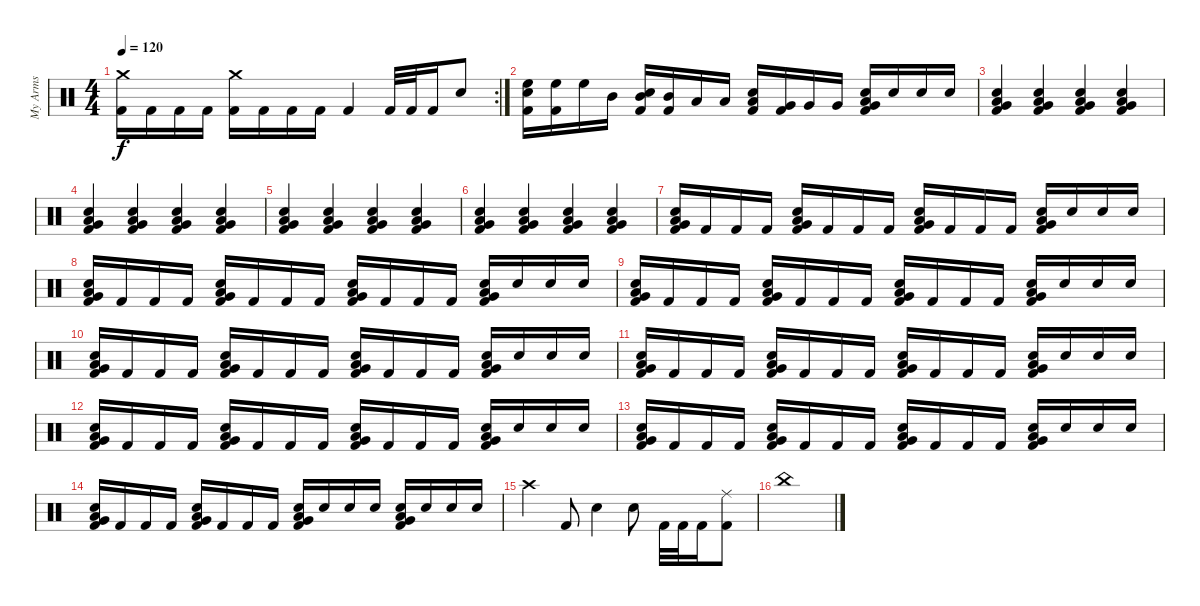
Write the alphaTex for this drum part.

\track ("My Arms" "My Arms") {instrument percussion}
\staff {score}
\articulation defaults
\rc 2
\ts (4 4)
\tempo 120
\clef neutral
\ks c
("Crash medium (hit)" "Kick (hit) 2").16{dy f} "Kick (hit) 2".16 "Kick (hit) 2".16 "Kick (hit) 2".16 ("Crash medium (hit)" "Kick (hit) 2").16 "Kick (hit) 2".16 "Kick (hit) 2".16 "Kick (hit) 2".16 "Kick (hit) 2".4 "Kick (hit) 2".32 "Kick (hit) 2".32 "Kick (hit) 2".16 "Snare (hit) 2".8 |
("High Floor Tom (hit)" "Kick (hit) 2" "Snare (hit) 2").16 ("High Floor Tom (hit)" "Kick (hit) 2").16 "High Floor Tom (hit)".16 "Mid Tom (hit)".16 ("Mid Tom (hit)" "Kick (hit) 2" "Snare (hit) 2").16 ("Mid Tom (hit)" "Kick (hit) 2").16 "Low Tom (hit)".16 "Low Tom (hit)".16 ("Low Tom (hit)" "Kick (hit) 2" "Snare (hit) 2").16 ("Very Low Tom (hit)" "Kick (hit) 2").16 "Very Low Tom (hit)".16 "Very Low Tom (hit)".16 ("Very Low Tom (hit)" "Low Tom (hit)" "Kick (hit) 2" "Snare (hit) 2").16 "Snare (hit) 2".16 "Snare (hit) 2".16 "Snare (hit) 2".16 |
("Very Low Tom (hit)" "Low Tom (hit)" "Kick (hit) 2" "Snare (hit) 2").4 ("Very Low Tom (hit)" "Low Tom (hit)" "Kick (hit) 2" "Snare (hit) 2").4 ("Very Low Tom (hit)" "Low Tom (hit)" "Kick (hit) 2" "Snare (hit) 2").4 ("Very Low Tom (hit)" "Low Tom (hit)" "Kick (hit) 2" "Snare (hit) 2").4 |
("Very Low Tom (hit)" "Low Tom (hit)" "Kick (hit) 2" "Snare (hit) 2").4 ("Very Low Tom (hit)" "Low Tom (hit)" "Kick (hit) 2" "Snare (hit) 2").4 ("Very Low Tom (hit)" "Low Tom (hit)" "Kick (hit) 2" "Snare (hit) 2").4 ("Very Low Tom (hit)" "Low Tom (hit)" "Kick (hit) 2" "Snare (hit) 2").4 |
("Very Low Tom (hit)" "Low Tom (hit)" "Kick (hit) 2" "Snare (hit) 2").4 ("Very Low Tom (hit)" "Low Tom (hit)" "Kick (hit) 2" "Snare (hit) 2").4 ("Very Low Tom (hit)" "Low Tom (hit)" "Kick (hit) 2" "Snare (hit) 2").4 ("Very Low Tom (hit)" "Low Tom (hit)" "Kick (hit) 2" "Snare (hit) 2").4 |
("Very Low Tom (hit)" "Low Tom (hit)" "Kick (hit) 2" "Snare (hit) 2").4 ("Very Low Tom (hit)" "Low Tom (hit)" "Kick (hit) 2" "Snare (hit) 2").4 ("Very Low Tom (hit)" "Low Tom (hit)" "Kick (hit) 2" "Snare (hit) 2").4 ("Very Low Tom (hit)" "Low Tom (hit)" "Kick (hit) 2" "Snare (hit) 2").4 |
("Very Low Tom (hit)" "Low Tom (hit)" "Kick (hit) 2" "Snare (hit) 2").16 "Kick (hit) 2".16 "Kick (hit) 2".16 "Kick (hit) 2".16 ("Very Low Tom (hit)" "Low Tom (hit)" "Kick (hit) 2" "Snare (hit) 2").16 "Kick (hit) 2".16 "Kick (hit) 2".16 "Kick (hit) 2".16 ("Very Low Tom (hit)" "Low Tom (hit)" "Kick (hit) 2" "Snare (hit) 2").16 "Kick (hit) 2".16 "Kick (hit) 2".16 "Kick (hit) 2".16 ("Very Low Tom (hit)" "Low Tom (hit)" "Kick (hit) 2" "Snare (hit) 2").16 "Snare (hit) 2".16 "Snare (hit) 2".16 "Snare (hit) 2".16 |
("Very Low Tom (hit)" "Low Tom (hit)" "Kick (hit) 2" "Snare (hit) 2").16 "Kick (hit) 2".16 "Kick (hit) 2".16 "Kick (hit) 2".16 ("Very Low Tom (hit)" "Low Tom (hit)" "Kick (hit) 2" "Snare (hit) 2").16 "Kick (hit) 2".16 "Kick (hit) 2".16 "Kick (hit) 2".16 ("Very Low Tom (hit)" "Low Tom (hit)" "Kick (hit) 2" "Snare (hit) 2").16 "Kick (hit) 2".16 "Kick (hit) 2".16 "Kick (hit) 2".16 ("Very Low Tom (hit)" "Low Tom (hit)" "Kick (hit) 2" "Snare (hit) 2").16 "Snare (hit) 2".16 "Snare (hit) 2".16 "Snare (hit) 2".16 |
("Very Low Tom (hit)" "Low Tom (hit)" "Kick (hit) 2" "Snare (hit) 2").16 "Kick (hit) 2".16 "Kick (hit) 2".16 "Kick (hit) 2".16 ("Very Low Tom (hit)" "Low Tom (hit)" "Kick (hit) 2" "Snare (hit) 2").16 "Kick (hit) 2".16 "Kick (hit) 2".16 "Kick (hit) 2".16 ("Very Low Tom (hit)" "Low Tom (hit)" "Kick (hit) 2" "Snare (hit) 2").16 "Kick (hit) 2".16 "Kick (hit) 2".16 "Kick (hit) 2".16 ("Very Low Tom (hit)" "Low Tom (hit)" "Kick (hit) 2" "Snare (hit) 2").16 "Snare (hit) 2".16 "Snare (hit) 2".16 "Snare (hit) 2".16 |
("Very Low Tom (hit)" "Low Tom (hit)" "Kick (hit) 2" "Snare (hit) 2").16 "Kick (hit) 2".16 "Kick (hit) 2".16 "Kick (hit) 2".16 ("Very Low Tom (hit)" "Low Tom (hit)" "Kick (hit) 2" "Snare (hit) 2").16 "Kick (hit) 2".16 "Kick (hit) 2".16 "Kick (hit) 2".16 ("Very Low Tom (hit)" "Low Tom (hit)" "Kick (hit) 2" "Snare (hit) 2").16 "Kick (hit) 2".16 "Kick (hit) 2".16 "Kick (hit) 2".16 ("Very Low Tom (hit)" "Low Tom (hit)" "Kick (hit) 2" "Snare (hit) 2").16 "Snare (hit) 2".16 "Snare (hit) 2".16 "Snare (hit) 2".16 |
("Very Low Tom (hit)" "Low Tom (hit)" "Kick (hit) 2" "Snare (hit) 2").16 "Kick (hit) 2".16 "Kick (hit) 2".16 "Kick (hit) 2".16 ("Very Low Tom (hit)" "Low Tom (hit)" "Kick (hit) 2" "Snare (hit) 2").16 "Kick (hit) 2".16 "Kick (hit) 2".16 "Kick (hit) 2".16 ("Very Low Tom (hit)" "Low Tom (hit)" "Kick (hit) 2" "Snare (hit) 2").16 "Kick (hit) 2".16 "Kick (hit) 2".16 "Kick (hit) 2".16 ("Very Low Tom (hit)" "Low Tom (hit)" "Kick (hit) 2" "Snare (hit) 2").16 "Snare (hit) 2".16 "Snare (hit) 2".16 "Snare (hit) 2".16 |
("Very Low Tom (hit)" "Low Tom (hit)" "Kick (hit) 2" "Snare (hit) 2").16 "Kick (hit) 2".16 "Kick (hit) 2".16 "Kick (hit) 2".16 ("Very Low Tom (hit)" "Low Tom (hit)" "Kick (hit) 2" "Snare (hit) 2").16 "Kick (hit) 2".16 "Kick (hit) 2".16 "Kick (hit) 2".16 ("Very Low Tom (hit)" "Low Tom (hit)" "Kick (hit) 2" "Snare (hit) 2").16 "Kick (hit) 2".16 "Kick (hit) 2".16 "Kick (hit) 2".16 ("Very Low Tom (hit)" "Low Tom (hit)" "Kick (hit) 2" "Snare (hit) 2").16 "Snare (hit) 2".16 "Snare (hit) 2".16 "Snare (hit) 2".16 |
("Very Low Tom (hit)" "Low Tom (hit)" "Kick (hit) 2" "Snare (hit) 2").16 "Kick (hit) 2".16 "Kick (hit) 2".16 "Kick (hit) 2".16 ("Very Low Tom (hit)" "Low Tom (hit)" "Kick (hit) 2" "Snare (hit) 2").16 "Kick (hit) 2".16 "Kick (hit) 2".16 "Kick (hit) 2".16 ("Very Low Tom (hit)" "Low Tom (hit)" "Kick (hit) 2" "Snare (hit) 2").16 "Kick (hit) 2".16 "Kick (hit) 2".16 "Kick (hit) 2".16 ("Very Low Tom (hit)" "Low Tom (hit)" "Kick (hit) 2" "Snare (hit) 2").16 "Snare (hit) 2".16 "Snare (hit) 2".16 "Snare (hit) 2".16 |
("Very Low Tom (hit)" "Low Tom (hit)" "Kick (hit) 2" "Snare (hit) 2").16 "Kick (hit) 2".16 "Kick (hit) 2".16 "Kick (hit) 2".16 ("Very Low Tom (hit)" "Low Tom (hit)" "Kick (hit) 2" "Snare (hit) 2").16 "Kick (hit) 2".16 "Kick (hit) 2".16 "Kick (hit) 2".16 ("Very Low Tom (hit)" "Low Tom (hit)" "Kick (hit) 2" "Snare (hit) 2").16 "Snare (hit) 2".16 "Snare (hit) 2".16 "Snare (hit) 2".16 ("Very Low Tom (hit)" "Low Tom (hit)" "Kick (hit) 2" "Snare (hit) 2").16 "Snare (hit) 2".16 "Snare (hit) 2".16 "Snare (hit) 2".16 |
"Crash high (hit)".4 "Kick (hit) 2".8 "Snare (hit) 2".4 "Snare (hit) 2".8 "Kick (hit) 2".32 "Kick (hit) 2".32 "Kick (hit) 2".16 ("Ride (middle)" "Kick (hit) 2").8 |
"China (hit)".1
